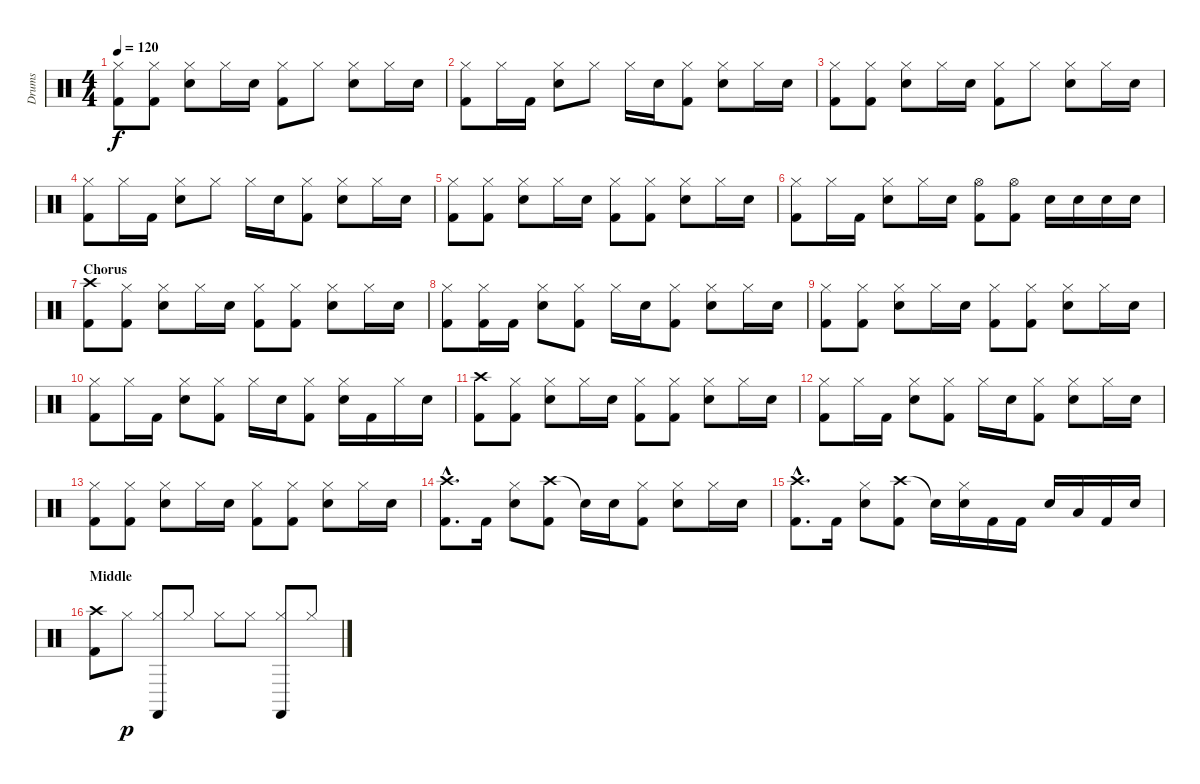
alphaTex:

\track ("Drums" "Drums") {instrument percussion}
\staff {score}
\articulation defaults
\ts (4 4)
\tempo 120
\clef neutral
\ks c
("Hi-Hat (closed)" "Kick (hit) 2").8{dy f} ("Hi-Hat (closed)" "Kick (hit) 2").8 ("Hi-Hat (closed)" "Snare (hit) 2").8 "Hi-Hat (closed)".16 "Snare (hit) 2".16 ("Hi-Hat (closed)" "Kick (hit) 2").8 "Hi-Hat (closed)".8 ("Hi-Hat (closed)" "Snare (hit) 2").8 "Hi-Hat (closed)".16 "Snare (hit) 2".16 |
("Hi-Hat (closed)" "Kick (hit) 2").8 "Hi-Hat (closed)".16 "Kick (hit) 2".16 ("Hi-Hat (closed)" "Snare (hit) 2").8 "Hi-Hat (closed)".8 "Hi-Hat (closed)".16 "Snare (hit) 2".16 ("Hi-Hat (closed)" "Kick (hit) 2").8 ("Hi-Hat (closed)" "Snare (hit) 2").8 "Hi-Hat (closed)".16 "Snare (hit) 2".16 |
("Hi-Hat (closed)" "Kick (hit) 2").8 ("Hi-Hat (closed)" "Kick (hit) 2").8 ("Hi-Hat (closed)" "Snare (hit) 2").8 "Hi-Hat (closed)".16 "Snare (hit) 2".16 ("Hi-Hat (closed)" "Kick (hit) 2").8 "Hi-Hat (closed)".8 ("Hi-Hat (closed)" "Snare (hit) 2").8 "Hi-Hat (closed)".16 "Snare (hit) 2".16 |
("Hi-Hat (closed)" "Kick (hit) 2").8 "Hi-Hat (closed)".16 "Kick (hit) 2".16 ("Hi-Hat (closed)" "Snare (hit) 2").8 "Hi-Hat (closed)".8 "Hi-Hat (closed)".16 "Snare (hit) 2".16 ("Hi-Hat (closed)" "Kick (hit) 2").8 ("Hi-Hat (closed)" "Snare (hit) 2").8 "Hi-Hat (closed)".16 "Snare (hit) 2".16 |
("Hi-Hat (closed)" "Kick (hit) 2").8 ("Hi-Hat (closed)" "Kick (hit) 2").8 ("Hi-Hat (closed)" "Snare (hit) 2").8 "Hi-Hat (closed)".16 "Snare (hit) 2".16 ("Hi-Hat (closed)" "Kick (hit) 2").8 ("Hi-Hat (closed)" "Kick (hit) 2").8 ("Hi-Hat (closed)" "Snare (hit) 2").8 "Hi-Hat (closed)".16 "Snare (hit) 2".16 |
("Hi-Hat (closed)" "Kick (hit) 2").8 "Hi-Hat (closed)".16 "Kick (hit) 2".16 ("Hi-Hat (closed)" "Snare (hit) 2").8 "Hi-Hat (closed)".16 "Snare (hit) 2".16 ("Hi-Hat (open)" "Kick (hit) 2").8 ("Hi-Hat (open)" "Kick (hit) 2").8 "Snare (hit) 2".16 "Snare (hit) 2".16 "Snare (hit) 2".16 "Snare (hit) 2".16 |
\section ("" "Chorus")
("Crash high (hit)" "Kick (hit) 2").8 ("Hi-Hat (closed)" "Kick (hit) 2").8 ("Hi-Hat (closed)" "Snare (hit) 2").8 "Hi-Hat (closed)".16 "Snare (hit) 2".16 ("Hi-Hat (closed)" "Kick (hit) 2").8 ("Hi-Hat (closed)" "Kick (hit) 2").8 ("Hi-Hat (closed)" "Snare (hit) 2").8 "Hi-Hat (closed)".16 "Snare (hit) 2".16 |
("Hi-Hat (closed)" "Kick (hit) 2").8 ("Hi-Hat (closed)" "Kick (hit) 2").16 "Kick (hit) 2".16 ("Hi-Hat (closed)" "Snare (hit) 2").8 ("Hi-Hat (closed)" "Kick (hit) 2").8 "Hi-Hat (closed)".16 "Snare (hit) 2".16 ("Hi-Hat (closed)" "Kick (hit) 2").8 ("Hi-Hat (closed)" "Snare (hit) 2").8 "Hi-Hat (closed)".16 "Snare (hit) 2".16 |
("Hi-Hat (closed)" "Kick (hit) 2").8 ("Hi-Hat (closed)" "Kick (hit) 2").8 ("Hi-Hat (closed)" "Snare (hit) 2").8 "Hi-Hat (closed)".16 "Snare (hit) 2".16 ("Hi-Hat (closed)" "Kick (hit) 2").8 ("Hi-Hat (closed)" "Kick (hit) 2").8 ("Hi-Hat (closed)" "Snare (hit) 2").8 "Hi-Hat (closed)".16 "Snare (hit) 2".16 |
("Hi-Hat (closed)" "Kick (hit) 2").8 "Hi-Hat (closed)".16 "Kick (hit) 2".16 ("Hi-Hat (closed)" "Snare (hit) 2").8 ("Hi-Hat (closed)" "Kick (hit) 2").8 "Hi-Hat (closed)".16 "Snare (hit) 2".16 ("Hi-Hat (closed)" "Kick (hit) 2").8 ("Hi-Hat (closed)" "Snare (hit) 2").16 "Kick (hit) 2".16 "Hi-Hat (closed)".16 "Snare (hit) 2".16 |
("Crash high (hit)" "Kick (hit) 2").8 ("Hi-Hat (closed)" "Kick (hit) 2").8 ("Hi-Hat (closed)" "Snare (hit) 2").8 "Hi-Hat (closed)".16 "Snare (hit) 2".16 ("Hi-Hat (closed)" "Kick (hit) 2").8 ("Hi-Hat (closed)" "Kick (hit) 2").8 ("Hi-Hat (closed)" "Snare (hit) 2").8 "Hi-Hat (closed)".16 "Snare (hit) 2".16 |
("Hi-Hat (closed)" "Kick (hit) 2").8 "Hi-Hat (closed)".16 "Kick (hit) 2".16 ("Hi-Hat (closed)" "Snare (hit) 2").8 ("Hi-Hat (closed)" "Kick (hit) 2").8 "Hi-Hat (closed)".16 "Snare (hit) 2".16 ("Hi-Hat (closed)" "Kick (hit) 2").8 ("Hi-Hat (closed)" "Snare (hit) 2").8 "Hi-Hat (closed)".16 "Snare (hit) 2".16 |
("Hi-Hat (closed)" "Kick (hit) 2").8 ("Hi-Hat (closed)" "Kick (hit) 2").8 ("Hi-Hat (closed)" "Snare (hit) 2").8 "Hi-Hat (closed)".16 "Snare (hit) 2".16 ("Hi-Hat (closed)" "Kick (hit) 2").8 ("Hi-Hat (closed)" "Kick (hit) 2").8 ("Hi-Hat (closed)" "Snare (hit) 2").8 "Hi-Hat (closed)".16 "Snare (hit) 2".16 |
("Crash high (hit)"{hac} "Kick (hit) 2"{hac}).8{d} "Kick (hit) 2".16 ("Hi-Hat (closed)" "Snare (hit) 2").8 ("Crash high (hit)" "Kick (hit) 2").8 "Snare (hit)"{t}.16 "Snare (hit) 2".16 ("Hi-Hat (closed)" "Kick (hit) 2").8 ("Hi-Hat (closed)" "Snare (hit) 2").8 "Hi-Hat (closed)".16 "Snare (hit) 2".16 |
("Crash high (hit)"{hac} "Kick (hit) 2"{hac}).8{d} "Kick (hit) 2".16 ("Hi-Hat (closed)" "Snare (hit) 2").8 ("Crash high (hit)" "Kick (hit) 2").8 "Snare (hit)"{t}.16 ("Hi-Hat (closed)" "Snare (hit) 2").16 "Kick (hit) 2".16 "Kick (hit) 2".16 "Snare (hit) 2".16 "Low Tom (hit)".16 "Kick (hit) 2".16 "Snare (hit) 2".16 |
\section ("" "Middle")
("Crash high (hit)" "Kick (hit) 2").8 "Hi-Hat (closed)".8{dy p} ("Hi-Hat (closed)" "Castanets (hit)").8 "Hi-Hat (closed)".8 "Hi-Hat (closed)".8 "Hi-Hat (closed)".8 ("Hi-Hat (closed)" "Castanets (hit)").8 "Hi-Hat (closed)".8
